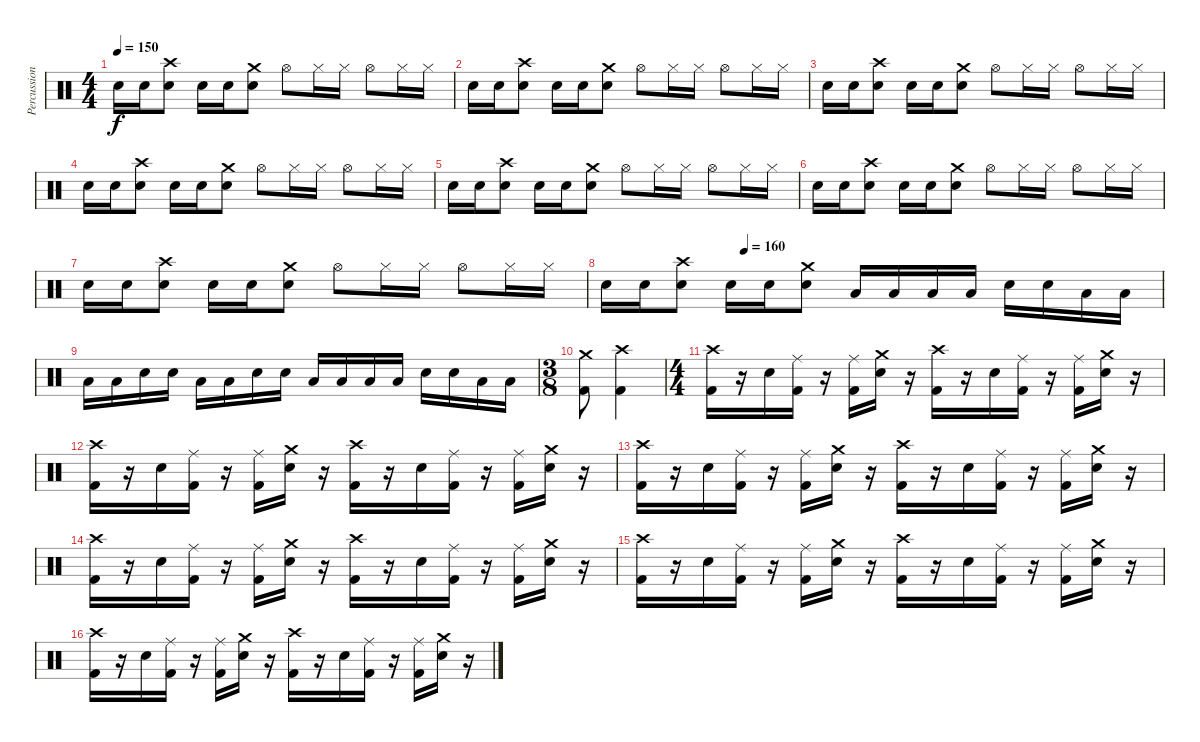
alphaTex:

\track ("Percussion" "Percussion") {instrument percussion}
\staff {score}
\articulation defaults
\ts (4 4)
\tempo 150
\clef neutral
\ks c "Electric Snare (hit)".16{dy f} "Electric Snare (hit)".16
("Crash high (hit)" "Electric Snare (hit)").8 "Electric Snare (hit)".16 "Electric Snare (hit)".16 ("Crash medium (hit)" "Electric Snare (hit)").8 "Hi-Hat (open)".8 "Hi-Hat (closed)".16 "Hi-Hat (closed)".16 "Hi-Hat (open)".8 "Hi-Hat (closed)".16 "Hi-Hat (closed)".16 |
"Electric Snare (hit)".16 "Electric Snare (hit)".16 ("Crash high (hit)" "Electric Snare (hit)").8 "Electric Snare (hit)".16 "Electric Snare (hit)".16 ("Crash medium (hit)" "Electric Snare (hit)").8 "Hi-Hat (open)".8 "Hi-Hat (closed)".16 "Hi-Hat (closed)".16 "Hi-Hat (open)".8 "Hi-Hat (closed)".16 "Hi-Hat (closed)".16 |
"Electric Snare (hit)".16 "Electric Snare (hit)".16 ("Crash high (hit)" "Electric Snare (hit)").8 "Electric Snare (hit)".16 "Electric Snare (hit)".16 ("Crash medium (hit)" "Electric Snare (hit)").8 "Hi-Hat (open)".8 "Hi-Hat (closed)".16 "Hi-Hat (closed)".16 "Hi-Hat (open)".8 "Hi-Hat (closed)".16 "Hi-Hat (closed)".16 |
"Electric Snare (hit)".16 "Electric Snare (hit)".16 ("Crash high (hit)" "Electric Snare (hit)").8 "Electric Snare (hit)".16 "Electric Snare (hit)".16 ("Crash medium (hit)" "Electric Snare (hit)").8 "Hi-Hat (open)".8 "Hi-Hat (closed)".16 "Hi-Hat (closed)".16 "Hi-Hat (open)".8 "Hi-Hat (closed)".16 "Hi-Hat (closed)".16 |
"Electric Snare (hit)".16 "Electric Snare (hit)".16 ("Crash high (hit)" "Electric Snare (hit)").8 "Electric Snare (hit)".16 "Electric Snare (hit)".16 ("Crash medium (hit)" "Electric Snare (hit)").8 "Hi-Hat (open)".8 "Hi-Hat (closed)".16 "Hi-Hat (closed)".16 "Hi-Hat (open)".8 "Hi-Hat (closed)".16 "Hi-Hat (closed)".16 |
"Electric Snare (hit)".16 "Electric Snare (hit)".16 ("Crash high (hit)" "Electric Snare (hit)").8 "Electric Snare (hit)".16 "Electric Snare (hit)".16 ("Crash medium (hit)" "Electric Snare (hit)").8 "Hi-Hat (open)".8 "Hi-Hat (closed)".16 "Hi-Hat (closed)".16 "Hi-Hat (open)".8 "Hi-Hat (closed)".16 "Hi-Hat (closed)".16 |
"Electric Snare (hit)".16 "Electric Snare (hit)".16 ("Crash high (hit)" "Electric Snare (hit)").8 "Electric Snare (hit)".16 "Electric Snare (hit)".16 ("Crash medium (hit)" "Electric Snare (hit)").8 "Hi-Hat (open)".8 "Hi-Hat (closed)".16 "Hi-Hat (closed)".16 "Hi-Hat (open)".8 "Hi-Hat (closed)".16 "Hi-Hat (closed)".16 |
\tempo (160 0.25)
"Electric Snare (hit)".16 "Electric Snare (hit)".16 ("Crash high (hit)" "Electric Snare (hit)").8 "Electric Snare (hit)".16 "Electric Snare (hit)".16 ("Crash medium (hit)" "Electric Snare (hit)").8 "Low Tom (hit)".16 "Low Tom (hit)".16 "Low Tom (hit)".16 "Low Tom (hit)".16 "Electric Snare (hit)".16 "Electric Snare (hit)".16 "Low Tom (hit)".16 "Low Tom (hit)".16 |
"Low Tom (hit)".16 "Low Tom (hit)".16 "Electric Snare (hit)".16 "Electric Snare (hit)".16 "Low Tom (hit)".16 "Low Tom (hit)".16 "Electric Snare (hit)".16 "Electric Snare (hit)".16 "Low Tom (hit)".16 "Low Tom (hit)".16 "Low Tom (hit)".16 "Low Tom (hit)".16 "Electric Snare (hit)".16 "Electric Snare (hit)".16 "Low Tom (hit)".16 "Low Tom (hit)".16 |
\ts (3 8)
("Crash medium (hit)" "Kick (hit) 2").8 ("Crash high (hit)" "Kick (hit) 2").4 |
\ts (4 4)
("Crash high (hit)" "Kick (hit) 2").16 r.16 "Electric Snare (hit)".16 ("Ride (middle)" "Kick (hit) 2").16 r.16 ("Ride (middle)" "Kick (hit) 2").16 ("Crash medium (hit)" "Electric Snare (hit)").16 r.16 ("Crash high (hit)" "Kick (hit) 2").16 r.16 "Electric Snare (hit)".16 ("Ride (middle)" "Kick (hit) 2").16 r.16 ("Ride (middle)" "Kick (hit) 2").16 ("Crash medium (hit)" "Electric Snare (hit)").16 r.16 |
("Crash high (hit)" "Kick (hit) 2").16 r.16 "Electric Snare (hit)".16 ("Ride (middle)" "Kick (hit) 2").16 r.16 ("Ride (middle)" "Kick (hit) 2").16 ("Crash medium (hit)" "Electric Snare (hit)").16 r.16 ("Crash high (hit)" "Kick (hit) 2").16 r.16 "Electric Snare (hit)".16 ("Ride (middle)" "Kick (hit) 2").16 r.16 ("Ride (middle)" "Kick (hit) 2").16 ("Crash medium (hit)" "Electric Snare (hit)").16 r.16 |
("Crash high (hit)" "Kick (hit) 2").16 r.16 "Electric Snare (hit)".16 ("Ride (middle)" "Kick (hit) 2").16 r.16 ("Ride (middle)" "Kick (hit) 2").16 ("Crash medium (hit)" "Electric Snare (hit)").16 r.16 ("Crash high (hit)" "Kick (hit) 2").16 r.16 "Electric Snare (hit)".16 ("Ride (middle)" "Kick (hit) 2").16 r.16 ("Ride (middle)" "Kick (hit) 2").16 ("Crash medium (hit)" "Electric Snare (hit)").16 r.16 |
("Crash high (hit)" "Kick (hit) 2").16 r.16 "Electric Snare (hit)".16 ("Ride (middle)" "Kick (hit) 2").16 r.16 ("Ride (middle)" "Kick (hit) 2").16 ("Crash medium (hit)" "Electric Snare (hit)").16 r.16 ("Crash high (hit)" "Kick (hit) 2").16 r.16 "Electric Snare (hit)".16 ("Ride (middle)" "Kick (hit) 2").16 r.16 ("Ride (middle)" "Kick (hit) 2").16 ("Crash medium (hit)" "Electric Snare (hit)").16 r.16 |
("Crash high (hit)" "Kick (hit) 2").16 r.16 "Electric Snare (hit)".16 ("Ride (middle)" "Kick (hit) 2").16 r.16 ("Ride (middle)" "Kick (hit) 2").16 ("Crash medium (hit)" "Electric Snare (hit)").16 r.16 ("Crash high (hit)" "Kick (hit) 2").16 r.16 "Electric Snare (hit)".16 ("Ride (middle)" "Kick (hit) 2").16 r.16 ("Ride (middle)" "Kick (hit) 2").16 ("Crash medium (hit)" "Electric Snare (hit)").16 r.16 |
("Crash high (hit)" "Kick (hit) 2").16 r.16 "Electric Snare (hit)".16 ("Ride (middle)" "Kick (hit) 2").16 r.16 ("Ride (middle)" "Kick (hit) 2").16 ("Crash medium (hit)" "Electric Snare (hit)").16 r.16 ("Crash high (hit)" "Kick (hit) 2").16 r.16 "Electric Snare (hit)".16 ("Ride (middle)" "Kick (hit) 2").16 r.16 ("Ride (middle)" "Kick (hit) 2").16 ("Crash medium (hit)" "Electric Snare (hit)").16 r.16
